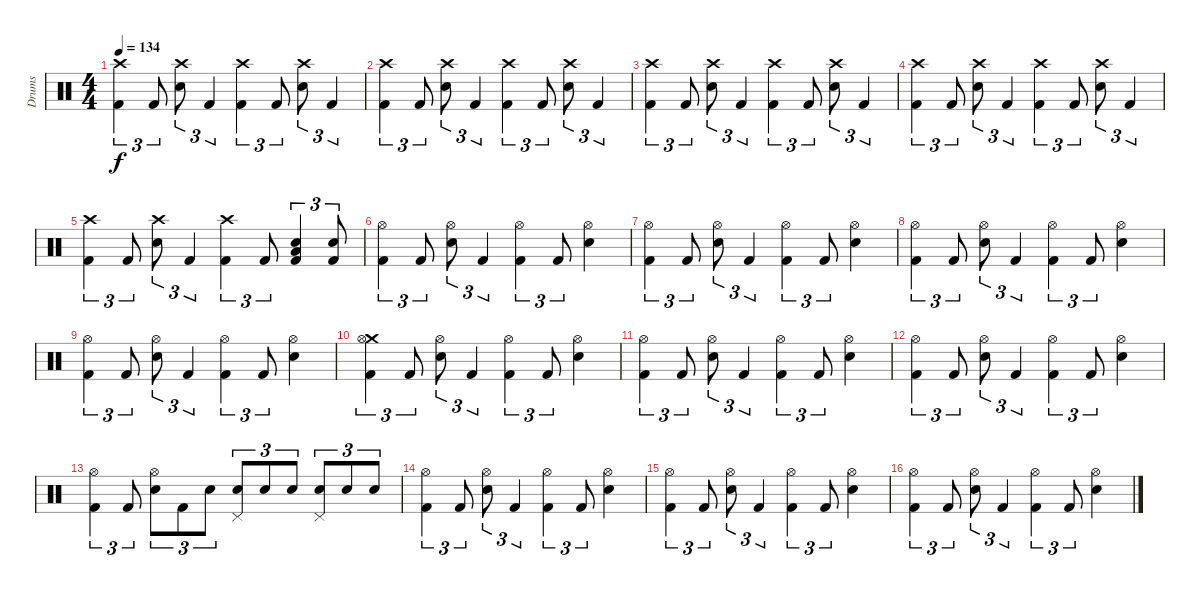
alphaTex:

\track ("Drums" "Drums") {instrument percussion}
\staff {score}
\articulation defaults
\ts (4 4)
\tempo 134
\clef neutral
\ks c
("Crash high (hit)" "Kick (hit) 2").4{tu (3 2) dy f} "Kick (hit) 2".8{tu (3 2)} ("Crash high (hit)" "Electric Snare (hit)").8{tu (3 2)} "Kick (hit) 2".4{tu (3 2)} ("Crash high (hit)" "Kick (hit) 2").4{tu (3 2)} "Kick (hit) 2".8{tu (3 2)} ("Crash high (hit)" "Electric Snare (hit)").8{tu (3 2)} "Kick (hit) 2".4{tu (3 2)} |
("Crash high (hit)" "Kick (hit) 2").4{tu (3 2)} "Kick (hit) 2".8{tu (3 2)} ("Crash high (hit)" "Electric Snare (hit)").8{tu (3 2)} "Kick (hit) 2".4{tu (3 2)} ("Crash high (hit)" "Kick (hit) 2").4{tu (3 2)} "Kick (hit) 2".8{tu (3 2)} ("Crash high (hit)" "Electric Snare (hit)").8{tu (3 2)} "Kick (hit) 2".4{tu (3 2)} |
("Crash high (hit)" "Kick (hit) 2").4{tu (3 2)} "Kick (hit) 2".8{tu (3 2)} ("Crash high (hit)" "Electric Snare (hit)").8{tu (3 2)} "Kick (hit) 2".4{tu (3 2)} ("Crash high (hit)" "Kick (hit) 2").4{tu (3 2)} "Kick (hit) 2".8{tu (3 2)} ("Crash high (hit)" "Electric Snare (hit)").8{tu (3 2)} "Kick (hit) 2".4{tu (3 2)} |
("Crash high (hit)" "Kick (hit) 2").4{tu (3 2)} "Kick (hit) 2".8{tu (3 2)} ("Crash high (hit)" "Electric Snare (hit)").8{tu (3 2)} "Kick (hit) 2".4{tu (3 2)} ("Crash high (hit)" "Kick (hit) 2").4{tu (3 2)} "Kick (hit) 2".8{tu (3 2)} ("Crash high (hit)" "Electric Snare (hit)").8{tu (3 2)} "Kick (hit) 2".4{tu (3 2)} |
("Crash high (hit)" "Kick (hit) 2").4{tu (3 2)} "Kick (hit) 2".8{tu (3 2)} ("Crash high (hit)" "Electric Snare (hit)").8{tu (3 2)} "Kick (hit) 2".4{tu (3 2)} ("Crash high (hit)" "Kick (hit) 2").4{tu (3 2)} "Kick (hit) 2".8{tu (3 2)} ("Low Floor Tom (hit)" "Electric Snare (hit)" "Kick (hit) 2").4{tu (3 2)} ("Electric Snare (hit)" "Kick (hit) 2").8{tu (3 2)} |
("Hi-Hat (open)" "Kick (hit) 2").4{tu (3 2)} "Kick (hit) 2".8{tu (3 2)} ("Hi-Hat (open)" "Electric Snare (hit)").8{tu (3 2)} "Kick (hit) 2".4{tu (3 2)} ("Hi-Hat (open)" "Kick (hit) 2").4{tu (3 2)} "Kick (hit) 2".8{tu (3 2)} ("Hi-Hat (open)" "Electric Snare (hit)").4 |
("Hi-Hat (open)" "Kick (hit) 2").4{tu (3 2)} "Kick (hit) 2".8{tu (3 2)} ("Hi-Hat (open)" "Electric Snare (hit)").8{tu (3 2)} "Kick (hit) 2".4{tu (3 2)} ("Hi-Hat (open)" "Kick (hit) 2").4{tu (3 2)} "Kick (hit) 2".8{tu (3 2)} ("Hi-Hat (open)" "Electric Snare (hit)").4 |
("Hi-Hat (open)" "Kick (hit) 2").4{tu (3 2)} "Kick (hit) 2".8{tu (3 2)} ("Hi-Hat (open)" "Electric Snare (hit)").8{tu (3 2)} "Kick (hit) 2".4{tu (3 2)} ("Hi-Hat (open)" "Kick (hit) 2").4{tu (3 2)} "Kick (hit) 2".8{tu (3 2)} ("Hi-Hat (open)" "Electric Snare (hit)").4 |
("Hi-Hat (open)" "Kick (hit) 2").4{tu (3 2)} "Kick (hit) 2".8{tu (3 2)} ("Hi-Hat (open)" "Electric Snare (hit)").8{tu (3 2)} "Kick (hit) 2".4{tu (3 2)} ("Hi-Hat (open)" "Kick (hit) 2").4{tu (3 2)} "Kick (hit) 2".8{tu (3 2)} ("Hi-Hat (open)" "Electric Snare (hit)").4 |
("Crash medium (hit)" "Hi-Hat (open)" "Kick (hit) 2").4{tu (3 2)} "Kick (hit) 2".8{tu (3 2)} ("Hi-Hat (open)" "Electric Snare (hit)").8{tu (3 2)} "Kick (hit) 2".4{tu (3 2)} ("Hi-Hat (open)" "Kick (hit) 2").4{tu (3 2)} "Kick (hit) 2".8{tu (3 2)} ("Hi-Hat (open)" "Electric Snare (hit)").4 |
("Hi-Hat (open)" "Kick (hit) 2").4{tu (3 2)} "Kick (hit) 2".8{tu (3 2)} ("Hi-Hat (open)" "Electric Snare (hit)").8{tu (3 2)} "Kick (hit) 2".4{tu (3 2)} ("Hi-Hat (open)" "Kick (hit) 2").4{tu (3 2)} "Kick (hit) 2".8{tu (3 2)} ("Hi-Hat (open)" "Electric Snare (hit)").4 |
("Hi-Hat (open)" "Kick (hit) 2").4{tu (3 2)} "Kick (hit) 2".8{tu (3 2)} ("Hi-Hat (open)" "Electric Snare (hit)").8{tu (3 2)} "Kick (hit) 2".4{tu (3 2)} ("Hi-Hat (open)" "Kick (hit) 2").4{tu (3 2)} "Kick (hit) 2".8{tu (3 2)} ("Hi-Hat (open)" "Electric Snare (hit)").4 |
("Hi-Hat (open)" "Kick (hit) 2").4{tu (3 2)} "Kick (hit) 2".8{tu (3 2)} ("Hi-Hat (open)" "Electric Snare (hit)").8{tu (3 2)} "Kick (hit) 2".8{tu (3 2)} "Electric Snare (hit)".8{tu (3 2)} ("Pedal Hi-Hat (hit)" "Electric Snare (hit)").8{tu (3 2)} "Electric Snare (hit)".8{tu (3 2)} "Electric Snare (hit)".8{tu (3 2)} ("Pedal Hi-Hat (hit)" "Electric Snare (hit)").8{tu (3 2)} "Electric Snare (hit)".8{tu (3 2)} "Electric Snare (hit)".8{tu (3 2)} |
("Hi-Hat (open)" "Kick (hit) 2").4{tu (3 2)} "Kick (hit) 2".8{tu (3 2)} ("Hi-Hat (open)" "Electric Snare (hit)").8{tu (3 2)} "Kick (hit) 2".4{tu (3 2)} ("Hi-Hat (open)" "Kick (hit) 2").4{tu (3 2)} "Kick (hit) 2".8{tu (3 2)} ("Hi-Hat (open)" "Electric Snare (hit)").4 |
("Hi-Hat (open)" "Kick (hit) 2").4{tu (3 2)} "Kick (hit) 2".8{tu (3 2)} ("Hi-Hat (open)" "Electric Snare (hit)").8{tu (3 2)} "Kick (hit) 2".4{tu (3 2)} ("Hi-Hat (open)" "Kick (hit) 2").4{tu (3 2)} "Kick (hit) 2".8{tu (3 2)} ("Hi-Hat (open)" "Electric Snare (hit)").4 |
("Hi-Hat (open)" "Kick (hit) 2").4{tu (3 2)} "Kick (hit) 2".8{tu (3 2)} ("Hi-Hat (open)" "Electric Snare (hit)").8{tu (3 2)} "Kick (hit) 2".4{tu (3 2)} ("Hi-Hat (open)" "Kick (hit) 2").4{tu (3 2)} "Kick (hit) 2".8{tu (3 2)} ("Hi-Hat (open)" "Electric Snare (hit)").4
